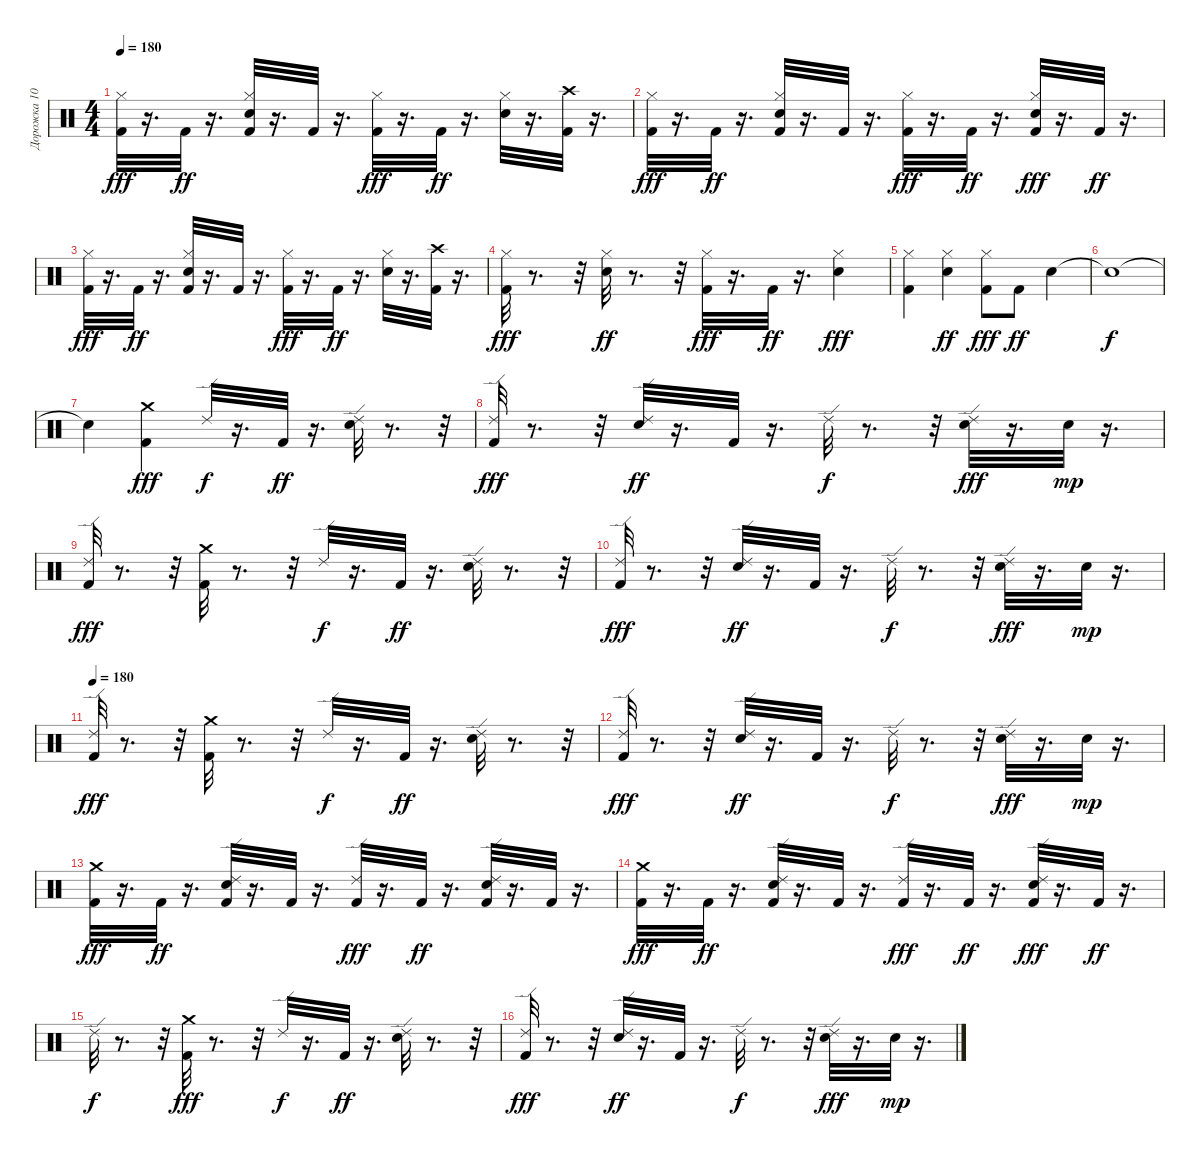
\track ("Дорожка 10" "Дорожка 10") {instrument percussion}
\staff {score}
\articulation defaults
\ts (4 4)
\tempo 180
\clef neutral
\ks c
("Kick (hit) 2" "Hi-Hat (closed)").32{dy fff} r.16{d} "Kick (hit) 2".32{dy ff} r.16{d} ("Kick (hit) 2" "Snare (hit) 2" "Hi-Hat (closed)").32 r.16{d} "Kick (hit) 2".32 r.16{d} ("Kick (hit) 2" "Hi-Hat (closed)").32{dy fff} r.16{d} "Kick (hit) 2".32{dy ff} r.16{d} ("Snare (hit) 2" "Hi-Hat (closed)").32 r.16{d} ("Crash high (hit)" "Kick (hit) 2").32 r.16{d} |
("Hi-Hat (closed)" "Kick (hit) 2").32{dy fff} r.16{d} "Kick (hit) 2".32{dy ff} r.16{d} ("Kick (hit) 2" "Snare (hit) 2" "Hi-Hat (closed)").32 r.16{d} "Kick (hit) 2".32 r.16{d} ("Kick (hit) 2" "Hi-Hat (closed)").32{dy fff} r.16{d} "Kick (hit) 2".32{dy ff} r.16{d} ("Kick (hit) 2" "Snare (hit) 2" "Hi-Hat (closed)").32{dy fff} r.16{d} "Kick (hit) 2".32{dy ff} r.16{d} |
("Kick (hit) 2" "Hi-Hat (closed)").32{dy fff} r.16{d} "Kick (hit) 2".32{dy ff} r.16{d} ("Kick (hit) 2" "Snare (hit) 2" "Hi-Hat (closed)").32 r.16{d} "Kick (hit) 2".32 r.16{d} ("Kick (hit) 2" "Hi-Hat (closed)").32{dy fff} r.16{d} "Kick (hit) 2".32{dy ff} r.16{d} ("Snare (hit) 2" "Hi-Hat (closed)").32 r.16{d} ("Crash high (hit)" "Kick (hit) 2").32 r.16{d} |
("Hi-Hat (closed)" "Kick (hit) 2").32{dy fff} r.8{d} r.32 ("Snare (hit) 2" "Hi-Hat (closed)").32{dy ff} r.8{d} r.32 ("Kick (hit) 2" "Hi-Hat (closed)").32{dy fff} r.16{d} "Kick (hit) 2".32{dy ff} r.16{d} ("Snare (hit) 2" "Hi-Hat (closed)").4{dy fff} |
("Kick (hit) 2" "Hi-Hat (closed)").4 ("Snare (hit) 2" "Hi-Hat (closed)").4{dy ff} ("Kick (hit) 2" "Hi-Hat (closed)").8{dy fff} "Kick (hit) 2".8{dy ff} "Snare (hit) 2".4 |
"Snare (hit)"{t}.1{dy f} |
"Snare (hit)"{t}.4 ("Kick (hit) 2" "Crash medium (hit)").4{dy fff} "Ride (edge) 2".32{dy f} r.16{d} "Kick (hit) 2".32{dy ff} r.16{d} ("Snare (hit) 2" "Ride (edge) 2").32 r.8{d} r.32 |
("Ride (edge) 2" "Kick (hit) 2").32{dy fff} r.8{d} r.32 ("Snare (hit) 2" "Ride (edge) 2").32{dy ff} r.16{d} "Kick (hit) 2".32 r.16{d} "Ride (edge) 2".32{dy f} r.8{d} r.32 ("Snare (hit) 2" "Ride (edge) 2").32{dy fff} r.16{d} "Snare (hit) 2".32{dy mp} r.16{d} |
("Kick (hit) 2" "Ride (edge) 2").32{dy fff} r.8{d} r.32 ("Kick (hit) 2" "Crash medium (hit)").32 r.8{d} r.32 "Ride (edge) 2".32{dy f} r.16{d} "Kick (hit) 2".32{dy ff} r.16{d} ("Snare (hit) 2" "Ride (edge) 2").32 r.8{d} r.32 |
("Ride (edge) 2" "Kick (hit) 2").32{dy fff} r.8{d} r.32 ("Snare (hit) 2" "Ride (edge) 2").32{dy ff} r.16{d} "Kick (hit) 2".32 r.16{d} "Ride (edge) 2".32{dy f} r.8{d} r.32 ("Snare (hit) 2" "Ride (edge) 2").32{dy fff} r.16{d} "Snare (hit) 2".32{dy mp} r.16{d} |
\tempo 180
("Kick (hit) 2" "Ride (edge) 2").32{dy fff} r.8{d} r.32 ("Kick (hit) 2" "Crash medium (hit)").32 r.8{d} r.32 "Ride (edge) 2".32{dy f} r.16{d} "Kick (hit) 2".32{dy ff} r.16{d} ("Snare (hit) 2" "Ride (edge) 2").32 r.8{d} r.32 |
("Ride (edge) 2" "Kick (hit) 2").32{dy fff} r.8{d} r.32 ("Snare (hit) 2" "Ride (edge) 2").32{dy ff} r.16{d} "Kick (hit) 2".32 r.16{d} "Ride (edge) 2".32{dy f} r.8{d} r.32 ("Snare (hit) 2" "Ride (edge) 2").32{dy fff} r.16{d} "Snare (hit) 2".32{dy mp} r.16{d} |
("Kick (hit) 2" "Crash medium (hit)").32{dy fff} r.16{d} "Kick (hit) 2".32{dy ff} r.16{d} ("Kick (hit) 2" "Snare (hit) 2" "Ride (edge) 2").32 r.16{d} "Kick (hit) 2".32 r.16{d} ("Kick (hit) 2" "Ride (edge) 2").32{dy fff} r.16{d} "Kick (hit) 2".32{dy ff} r.16{d} ("Kick (hit) 2" "Snare (hit) 2" "Ride (edge) 2").32 r.16{d} "Kick (hit) 2".32 r.16{d} |
("Crash medium (hit)" "Kick (hit) 2").32{dy fff} r.16{d} "Kick (hit) 2".32{dy ff} r.16{d} ("Kick (hit) 2" "Snare (hit) 2" "Ride (edge) 2").32 r.16{d} "Kick (hit) 2".32 r.16{d} ("Kick (hit) 2" "Ride (edge) 2").32{dy fff} r.16{d} "Kick (hit) 2".32{dy ff} r.16{d} ("Kick (hit) 2" "Snare (hit) 2" "Ride (edge) 2").32{dy fff} r.16{d} "Kick (hit) 2".32{dy ff} r.16{d} |
"Ride (edge) 2".32{dy f} r.8{d} r.32 ("Kick (hit) 2" "Crash medium (hit)").32{dy fff} r.8{d} r.32 "Ride (edge) 2".32{dy f} r.16{d} "Kick (hit) 2".32{dy ff} r.16{d} ("Snare (hit) 2" "Ride (edge) 2").32 r.8{d} r.32 |
("Ride (edge) 2" "Kick (hit) 2").32{dy fff} r.8{d} r.32 ("Snare (hit) 2" "Ride (edge) 2").32{dy ff} r.16{d} "Kick (hit) 2".32 r.16{d} "Ride (edge) 2".32{dy f} r.8{d} r.32 ("Snare (hit) 2" "Ride (edge) 2").32{dy fff} r.16{d} "Snare (hit) 2".32{dy mp} r.16{d}
